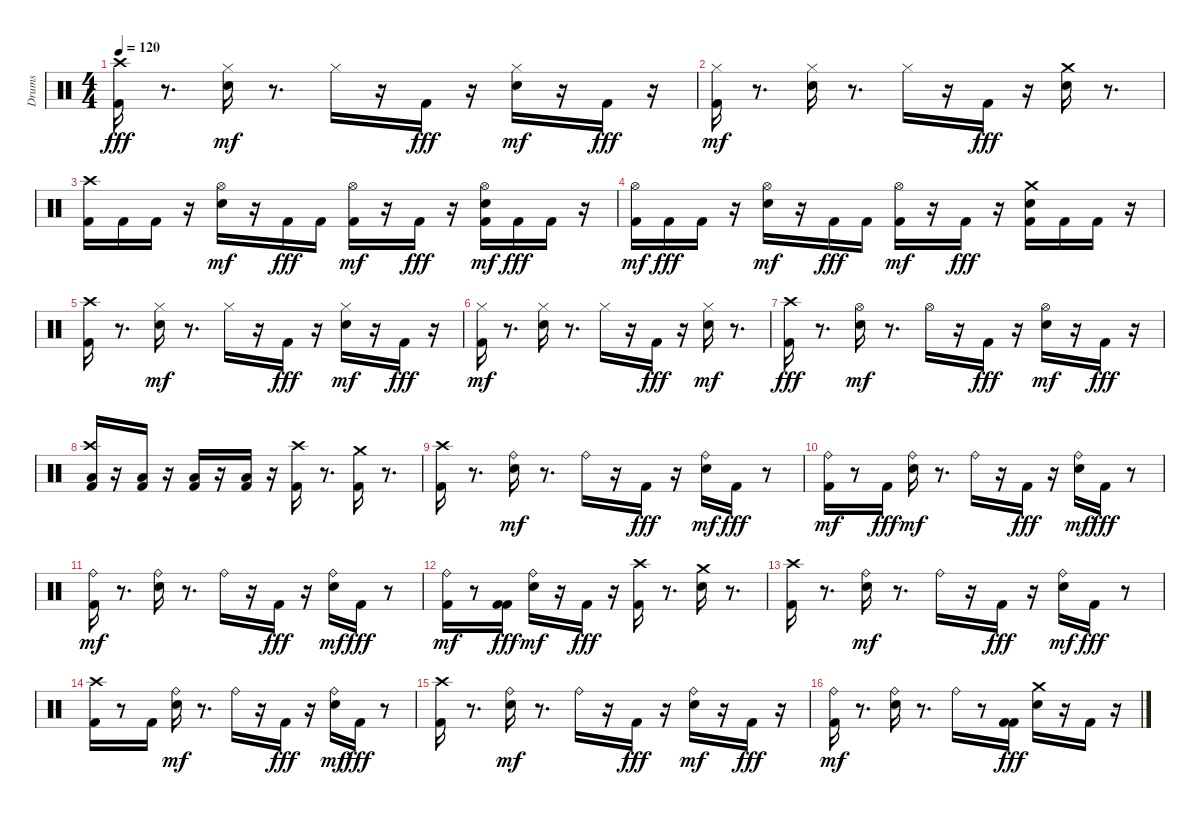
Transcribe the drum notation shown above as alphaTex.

\track ("Drums" "Drums") {instrument percussion}
\staff {score}
\articulation defaults
\ts (4 4)
\tempo 120
\clef neutral
\ks c
("Kick (hit) 2" "Crash high (hit)").16{dy fff} r.8{d} ("Electric Snare (hit)" "Hi-Hat (closed)").16{dy mf} r.8{d} "Hi-Hat (closed)".16 r.16 "Kick (hit) 2".16{dy fff} r.16 ("Electric Snare (hit)" "Hi-Hat (closed)").16{dy mf} r.16 "Kick (hit) 2".16{dy fff} r.16 |
("Kick (hit) 2" "Hi-Hat (closed)").16{dy mf} r.8{d} ("Electric Snare (hit)" "Hi-Hat (closed)").16 r.8{d} "Hi-Hat (closed)".16 r.16 "Kick (hit) 2".16{dy fff} r.16 ("Electric Snare (hit)" "Crash medium (hit)").16 r.8{d} |
("Kick (hit) 2" "Crash high (hit)").16 "Kick (hit) 2".16 "Kick (hit) 2".16 r.16 ("Electric Snare (hit)" "Hi-Hat (open)").16{dy mf} r.16 "Kick (hit) 2".16{dy fff} "Kick (hit) 2".16 ("Kick (hit) 2" "Hi-Hat (open)").16{dy mf} r.16 "Kick (hit) 2".16{dy fff} r.16 ("Electric Snare (hit)" "Kick (hit) 2" "Hi-Hat (open)").16{dy mf} "Kick (hit) 2".16{dy fff} "Kick (hit) 2".16 r.16 |
("Kick (hit) 2" "Hi-Hat (open)").16{dy mf} "Kick (hit) 2".16{dy fff} "Kick (hit) 2".16 r.16 ("Electric Snare (hit)" "Hi-Hat (open)").16{dy mf} r.16 "Kick (hit) 2".16{dy fff} "Kick (hit) 2".16 ("Kick (hit) 2" "Hi-Hat (open)").16{dy mf} r.16 "Kick (hit) 2".16{dy fff} r.16 ("Electric Snare (hit)" "Kick (hit) 2" "Crash medium (hit)").16 "Kick (hit) 2".16 "Kick (hit) 2".16 r.16 |
("Kick (hit) 2" "Crash high (hit)").16 r.8{d} ("Electric Snare (hit)" "Hi-Hat (closed)").16{dy mf} r.8{d} "Hi-Hat (closed)".16 r.16 "Kick (hit) 2".16{dy fff} r.16 ("Electric Snare (hit)" "Hi-Hat (closed)").16{dy mf} r.16 "Kick (hit) 2".16{dy fff} r.16 |
("Kick (hit) 2" "Hi-Hat (closed)").16{dy mf} r.8{d} ("Electric Snare (hit)" "Hi-Hat (closed)").16 r.8{d} "Hi-Hat (closed)".16 r.16 "Kick (hit) 2".16{dy fff} r.16 ("Electric Snare (hit)" "Hi-Hat (closed)").16{dy mf} r.8{d} |
("Kick (hit) 2" "Crash high (hit)").16{dy fff} r.8{d} ("Electric Snare (hit)" "Hi-Hat (open)").16{dy mf} r.8{d} "Hi-Hat (open)".16 r.16 "Kick (hit) 2".16{dy fff} r.16 ("Electric Snare (hit)" "Hi-Hat (open)").16{dy mf} r.16 "Kick (hit) 2".16{dy fff} r.16 |
("Kick (hit) 2" "Low Floor Tom (hit)" "Crash high (hit)").16 r.16 ("Kick (hit) 2" "Low Floor Tom (hit)").16 r.16 ("Kick (hit) 2" "Low Floor Tom (hit)").16 r.16 ("Kick (hit) 2" "Low Floor Tom (hit)").16 r.16 ("Kick (hit) 2" "Crash high (hit)").16 r.8{d} ("Kick (hit) 2" "Crash medium (hit)").16 r.8{d} |
("Kick (hit) 2" "Crash high (hit)").16 r.8{d} ("Electric Snare (hit)" "Ride (bell)").16{dy mf} r.8{d} "Ride (bell)".16 r.16 "Kick (hit) 2".16{dy fff} r.16 ("Electric Snare (hit)" "Ride (bell)").16{dy mf} "Kick (hit) 2".16{dy fff} r.8 |
("Kick (hit) 2" "Ride (bell)").16{dy mf} r.8 "Kick (hit) 2".16{dy fff} ("Electric Snare (hit)" "Ride (bell)").16{dy mf} r.8{d} "Ride (bell)".16 r.16 "Kick (hit) 2".16{dy fff} r.16 ("Electric Snare (hit)" "Ride (bell)").16{dy mf} "Kick (hit) 2".16{dy fff} r.8 |
("Kick (hit) 2" "Ride (bell)").16{dy mf} r.8{d} ("Electric Snare (hit)" "Ride (bell)").16 r.8{d} "Ride (bell)".16 r.16 "Kick (hit) 2".16{dy fff} r.16 ("Electric Snare (hit)" "Ride (bell)").16{dy mf} "Kick (hit) 2".16{dy fff} r.8 |
("Kick (hit) 2" "Ride (bell)").16{dy mf} r.8 ("Kick (hit) 2" "Kick (hit) 2").16{dy fff} ("Electric Snare (hit)" "Ride (bell)").16{dy mf} r.16 "Kick (hit) 2".16{dy fff} r.16 ("Kick (hit) 2" "Crash high (hit)").16 r.8{d} ("Electric Snare (hit)" "Crash medium (hit)").16 r.8{d} |
("Kick (hit) 2" "Crash high (hit)").16 r.8{d} ("Electric Snare (hit)" "Ride (bell)").16{dy mf} r.8{d} "Ride (bell)".16 r.16 "Kick (hit) 2".16{dy fff} r.16 ("Electric Snare (hit)" "Ride (bell)").16{dy mf} "Kick (hit) 2".16{dy fff} r.8 |
("Kick (hit) 2" "Crash high (hit)").16 r.8 "Kick (hit) 2".16 ("Electric Snare (hit)" "Ride (bell)").16{dy mf} r.8{d} "Ride (bell)".16 r.16 "Kick (hit) 2".16{dy fff} r.16 ("Electric Snare (hit)" "Ride (bell)").16{dy mf} "Kick (hit) 2".16{dy fff} r.8 |
("Kick (hit) 2" "Crash high (hit)").16 r.8{d} ("Electric Snare (hit)" "Ride (bell)").16{dy mf} r.8{d} "Ride (bell)".16 r.16 "Kick (hit) 2".16{dy fff} r.16 ("Electric Snare (hit)" "Ride (bell)").16{dy mf} r.16 "Kick (hit) 2".16{dy fff} r.16 |
("Kick (hit) 2" "Ride (bell)").16{dy mf} r.8{d} ("Electric Snare (hit)" "Ride (bell)").16 r.8{d} "Ride (bell)".16 r.8 ("Kick (hit) 2" "Kick (hit) 2").16{dy fff} ("Electric Snare (hit)" "Crash medium (hit)").16 r.16 "Kick (hit) 2".16 r.16
